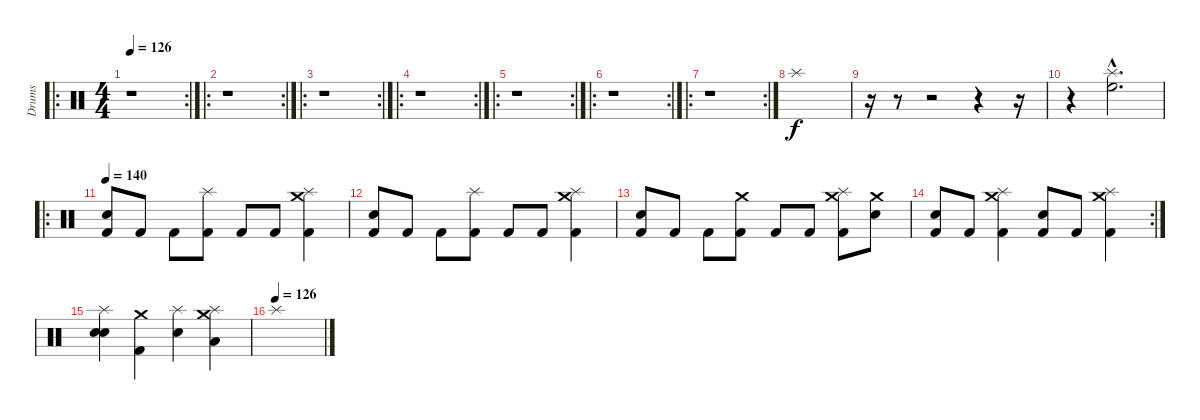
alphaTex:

\track ("Drums" "Drums") {instrument percussion}
\staff {score}
\articulation defaults
\ro
\rc 2
\ts (4 4)
\tempo 126
\clef neutral
\ks c
r.1{dy f} |
\ro
\rc 2
r.1 |
\ro
\rc 2
r.1 |
\ro
\rc 2
r.1 |
\ro
\rc 2
r.1 |
\ro
\rc 2
r.1 |
\ro
\rc 2
r.1 |
"Splash (hit)".1 |
r.16 r.8 r.2 r.4 r.16 |
r.4 ("Splash (hit)"{hac} "High Floor Tom (hit)"{hac}).2{d} |
\ro
\tempo 140
("Snare (hit) 2" "Kick (hit) 2").8 "Kick (hit) 2".8 "Kick (hit) 2".8 ("Splash (hit)" "Kick (hit) 2").8 "Kick (hit) 2".8 "Kick (hit) 2".8 ("Kick (hit) 2" "Splash (hit)" "Crash medium (hit)").4 |
("Snare (hit) 2" "Kick (hit) 2").8 "Kick (hit) 2".8 "Kick (hit) 2".8 ("Splash (hit)" "Kick (hit) 2").8 "Kick (hit) 2".8 "Kick (hit) 2".8 ("Kick (hit) 2" "Splash (hit)" "Crash medium (hit)").4 |
("Snare (hit) 2" "Kick (hit) 2").8 "Kick (hit) 2".8 "Kick (hit) 2".8 ("Crash medium (hit)" "Kick (hit) 2").8 "Kick (hit) 2".8 "Kick (hit) 2".8 ("Kick (hit) 2" "Splash (hit)" "Crash medium (hit)").8 ("Crash medium (hit)" "Snare (hit) 2").8 |
\rc 2
("Snare (hit) 2" "Kick (hit) 2").8 "Kick (hit) 2".8 ("Crash medium (hit)" "Splash (hit)" "Kick (hit) 2").4 ("Snare (hit) 2" "Kick (hit) 2").8 "Kick (hit) 2".8 ("Crash medium (hit)" "Splash (hit)" "Kick (hit) 2").4 |
("Splash (hit)" "Snare (hit) 2" "Electric Snare (hit)").4 ("Crash medium (hit)" "Kick (hit) 2").4 ("Splash (hit)" "Snare (hit) 2").4 ("Crash medium (hit)" "Splash (hit)" "Low Floor Tom (hit)").4 |
\tempo (126)
"Splash (hit)".1
